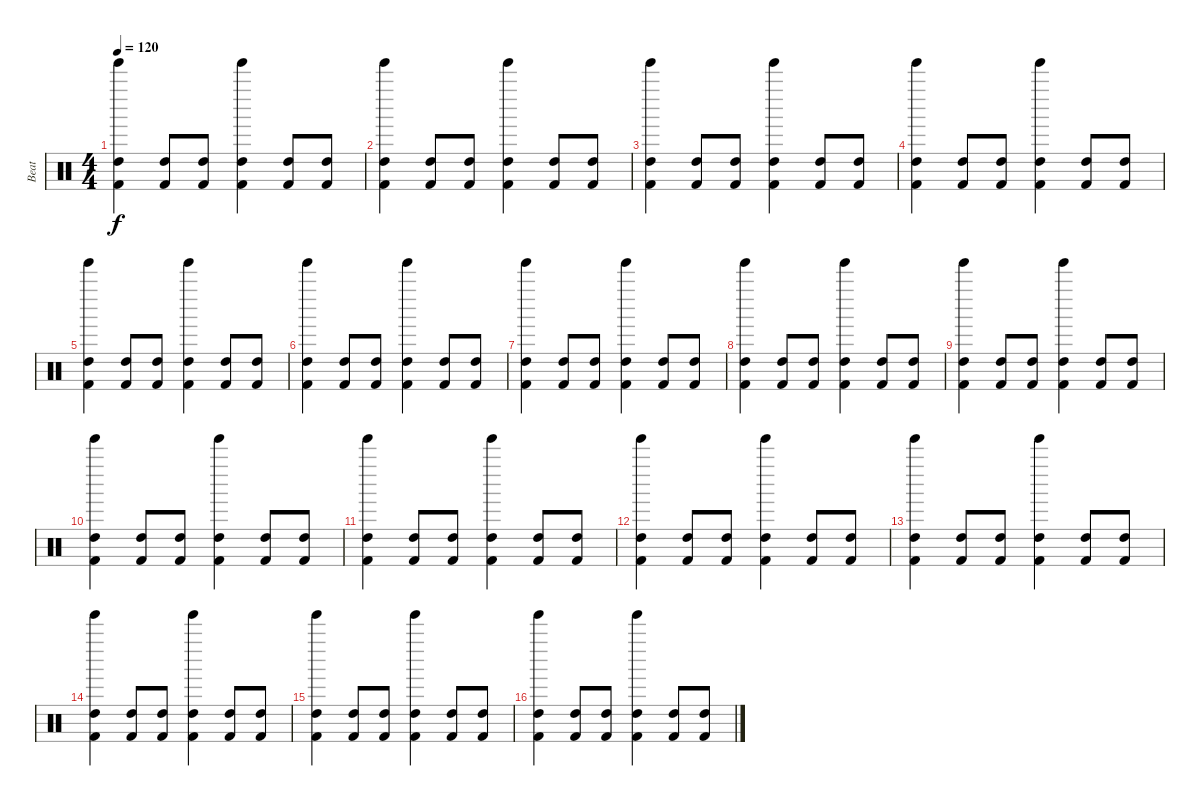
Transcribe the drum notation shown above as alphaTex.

\track ("Beat" "Beat") {instrument percussion}
\staff {score}
\articulation defaults
\ts (4 4)
\tempo 120
\clef neutral
\ks c
("High Tom (hit)" "Kick (hit) 2" "Tinkle Bell (hit)").4{dy f} ("High Tom (hit)" "Kick (hit) 2").8 ("High Tom (hit)" "Kick (hit) 2").8 ("High Tom (hit)" "Kick (hit) 2" "Tinkle Bell (hit)").4 ("High Tom (hit)" "Kick (hit) 2").8 ("High Tom (hit)" "Kick (hit) 2").8 |
("High Tom (hit)" "Kick (hit) 2" "Tinkle Bell (hit)").4 ("High Tom (hit)" "Kick (hit) 2").8 ("High Tom (hit)" "Kick (hit) 2").8 ("High Tom (hit)" "Kick (hit) 2" "Tinkle Bell (hit)").4 ("High Tom (hit)" "Kick (hit) 2").8 ("High Tom (hit)" "Kick (hit) 2").8 |
("High Tom (hit)" "Kick (hit) 2" "Tinkle Bell (hit)").4 ("High Tom (hit)" "Kick (hit) 2").8 ("High Tom (hit)" "Kick (hit) 2").8 ("High Tom (hit)" "Kick (hit) 2" "Tinkle Bell (hit)").4 ("High Tom (hit)" "Kick (hit) 2").8 ("High Tom (hit)" "Kick (hit) 2").8 |
("High Tom (hit)" "Kick (hit) 2" "Tinkle Bell (hit)").4 ("High Tom (hit)" "Kick (hit) 2").8 ("High Tom (hit)" "Kick (hit) 2").8 ("High Tom (hit)" "Kick (hit) 2" "Tinkle Bell (hit)").4 ("High Tom (hit)" "Kick (hit) 2").8 ("High Tom (hit)" "Kick (hit) 2").8 |
("High Tom (hit)" "Kick (hit) 2" "Tinkle Bell (hit)").4 ("High Tom (hit)" "Kick (hit) 2").8 ("High Tom (hit)" "Kick (hit) 2").8 ("High Tom (hit)" "Kick (hit) 2" "Tinkle Bell (hit)").4 ("High Tom (hit)" "Kick (hit) 2").8 ("High Tom (hit)" "Kick (hit) 2").8 |
("High Tom (hit)" "Kick (hit) 2" "Tinkle Bell (hit)").4 ("High Tom (hit)" "Kick (hit) 2").8 ("High Tom (hit)" "Kick (hit) 2").8 ("High Tom (hit)" "Kick (hit) 2" "Tinkle Bell (hit)").4 ("High Tom (hit)" "Kick (hit) 2").8 ("High Tom (hit)" "Kick (hit) 2").8 |
("High Tom (hit)" "Kick (hit) 2" "Tinkle Bell (hit)").4 ("High Tom (hit)" "Kick (hit) 2").8 ("High Tom (hit)" "Kick (hit) 2").8 ("High Tom (hit)" "Kick (hit) 2" "Tinkle Bell (hit)").4 ("High Tom (hit)" "Kick (hit) 2").8 ("High Tom (hit)" "Kick (hit) 2").8 |
("High Tom (hit)" "Kick (hit) 2" "Tinkle Bell (hit)").4 ("High Tom (hit)" "Kick (hit) 2").8 ("High Tom (hit)" "Kick (hit) 2").8 ("High Tom (hit)" "Kick (hit) 2" "Tinkle Bell (hit)").4 ("High Tom (hit)" "Kick (hit) 2").8 ("High Tom (hit)" "Kick (hit) 2").8 |
("High Tom (hit)" "Kick (hit) 2" "Tinkle Bell (hit)").4 ("High Tom (hit)" "Kick (hit) 2").8 ("High Tom (hit)" "Kick (hit) 2").8 ("High Tom (hit)" "Kick (hit) 2" "Tinkle Bell (hit)").4 ("High Tom (hit)" "Kick (hit) 2").8 ("High Tom (hit)" "Kick (hit) 2").8 |
("High Tom (hit)" "Kick (hit) 2" "Tinkle Bell (hit)").4 ("High Tom (hit)" "Kick (hit) 2").8 ("High Tom (hit)" "Kick (hit) 2").8 ("High Tom (hit)" "Kick (hit) 2" "Tinkle Bell (hit)").4 ("High Tom (hit)" "Kick (hit) 2").8 ("High Tom (hit)" "Kick (hit) 2").8 |
("High Tom (hit)" "Kick (hit) 2" "Tinkle Bell (hit)").4 ("High Tom (hit)" "Kick (hit) 2").8 ("High Tom (hit)" "Kick (hit) 2").8 ("High Tom (hit)" "Kick (hit) 2" "Tinkle Bell (hit)").4 ("High Tom (hit)" "Kick (hit) 2").8 ("High Tom (hit)" "Kick (hit) 2").8 |
("High Tom (hit)" "Kick (hit) 2" "Tinkle Bell (hit)").4 ("High Tom (hit)" "Kick (hit) 2").8 ("High Tom (hit)" "Kick (hit) 2").8 ("High Tom (hit)" "Kick (hit) 2" "Tinkle Bell (hit)").4 ("High Tom (hit)" "Kick (hit) 2").8 ("High Tom (hit)" "Kick (hit) 2").8 |
("High Tom (hit)" "Kick (hit) 2" "Tinkle Bell (hit)").4 ("High Tom (hit)" "Kick (hit) 2").8 ("High Tom (hit)" "Kick (hit) 2").8 ("High Tom (hit)" "Kick (hit) 2" "Tinkle Bell (hit)").4 ("High Tom (hit)" "Kick (hit) 2").8 ("High Tom (hit)" "Kick (hit) 2").8 |
("High Tom (hit)" "Kick (hit) 2" "Tinkle Bell (hit)").4 ("High Tom (hit)" "Kick (hit) 2").8 ("High Tom (hit)" "Kick (hit) 2").8 ("High Tom (hit)" "Kick (hit) 2" "Tinkle Bell (hit)").4 ("High Tom (hit)" "Kick (hit) 2").8 ("High Tom (hit)" "Kick (hit) 2").8 |
("High Tom (hit)" "Kick (hit) 2" "Tinkle Bell (hit)").4 ("High Tom (hit)" "Kick (hit) 2").8 ("High Tom (hit)" "Kick (hit) 2").8 ("High Tom (hit)" "Kick (hit) 2" "Tinkle Bell (hit)").4 ("High Tom (hit)" "Kick (hit) 2").8 ("High Tom (hit)" "Kick (hit) 2").8 |
("High Tom (hit)" "Kick (hit) 2" "Tinkle Bell (hit)").4 ("High Tom (hit)" "Kick (hit) 2").8 ("High Tom (hit)" "Kick (hit) 2").8 ("High Tom (hit)" "Kick (hit) 2" "Tinkle Bell (hit)").4 ("High Tom (hit)" "Kick (hit) 2").8 ("High Tom (hit)" "Kick (hit) 2").8
